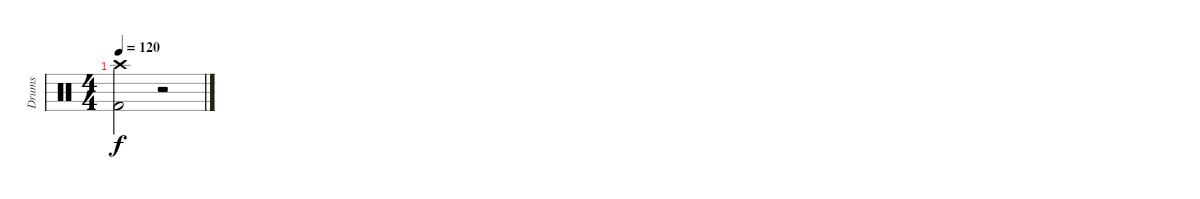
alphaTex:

\track ("Drums" "Drums") {instrument percussion}
\staff {score}
\articulation defaults
\ts (4 4)
\section ("" "")
\tempo 120
\clef neutral
\ks c
("Crash high (hit)" "Kick (hit) 2").2{dy f} r.2
